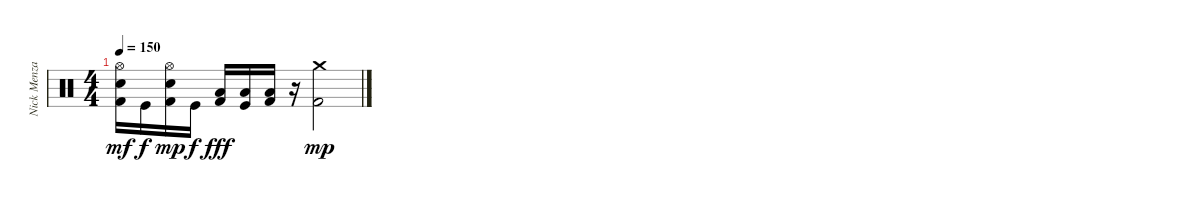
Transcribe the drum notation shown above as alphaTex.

\track ("Nick Menza" "Nick Menza") {solo instrument percussion}
\staff {score}
\articulation defaults
\ts (4 4)
\tempo 150
\clef neutral
\ks c
("Hi-Hat (open)" "Electric Snare (hit)" "Kick (hit) 2").16{dy mf} "Kick (hit)".16{dy f} ("Hi-Hat (open)" "Electric Snare (hit)" "Kick (hit) 2").16{dy mp} "Kick (hit)".16{dy f} ("Low Tom (hit)" "Kick (hit) 2").16{dy fff} ("Low Tom (hit)" "Kick (hit)").16 ("Low Tom (hit)" "Kick (hit) 2").16 r.16 ("Crash medium (hit)" "Kick (hit) 2").2{dy mp}
